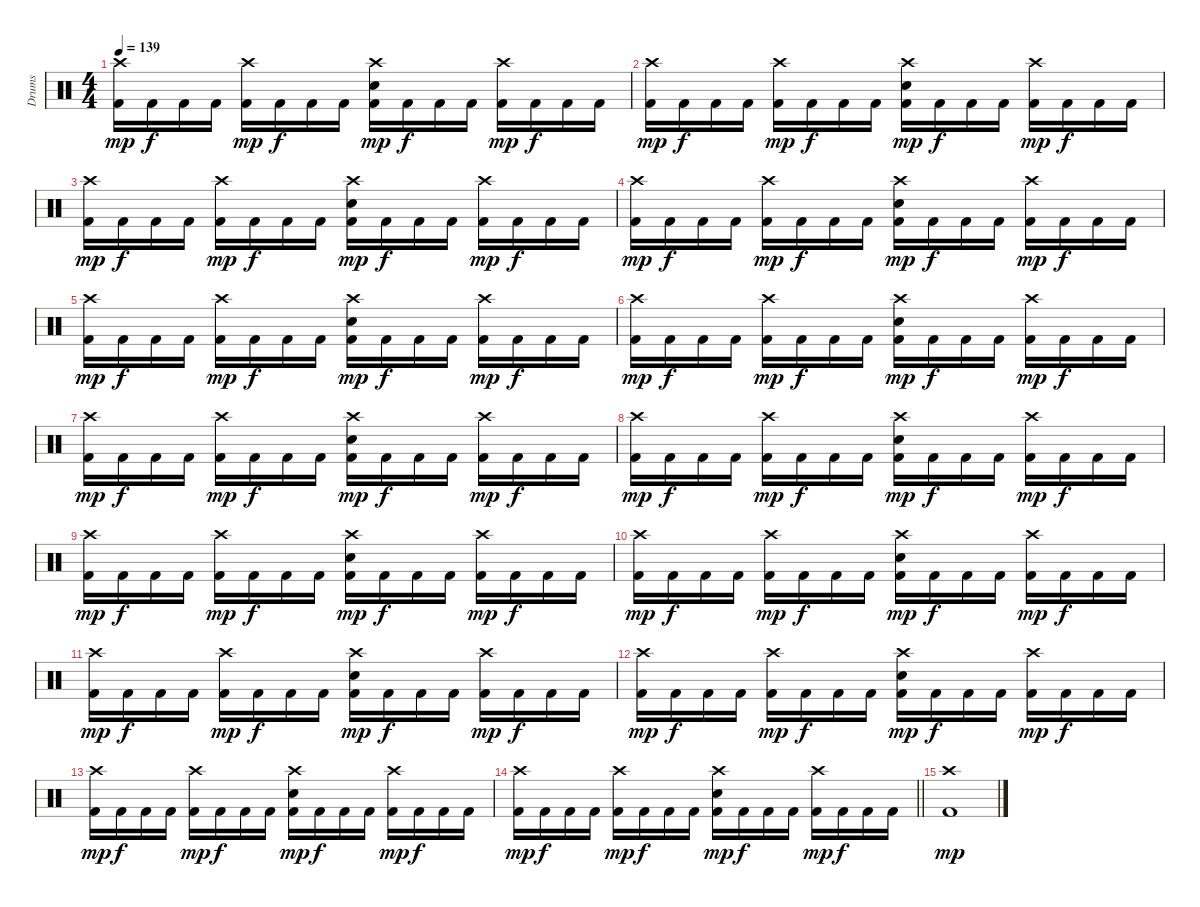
\track ("Drums" "Drums") {instrument percussion}
\staff {score}
\articulation defaults
\ts (4 4)
\tempo 139
\clef neutral
\ks c
("Crash high (hit)" "Kick (hit) 2").16{dy mp} "Kick (hit) 2".16{dy f} "Kick (hit) 2".16 "Kick (hit) 2".16 ("Crash high (hit)" "Kick (hit) 2").16{dy mp} "Kick (hit) 2".16{dy f} "Kick (hit) 2".16 "Kick (hit) 2".16 ("Crash high (hit)" "Snare (hit) 2" "Kick (hit) 2").16{dy mp} "Kick (hit) 2".16{dy f} "Kick (hit) 2".16 "Kick (hit) 2".16 ("Crash high (hit)" "Kick (hit) 2").16{dy mp} "Kick (hit) 2".16{dy f} "Kick (hit) 2".16 "Kick (hit) 2".16 |
("Crash high (hit)" "Kick (hit) 2").16{dy mp} "Kick (hit) 2".16{dy f} "Kick (hit) 2".16 "Kick (hit) 2".16 ("Crash high (hit)" "Kick (hit) 2").16{dy mp} "Kick (hit) 2".16{dy f} "Kick (hit) 2".16 "Kick (hit) 2".16 ("Crash high (hit)" "Snare (hit) 2" "Kick (hit) 2").16{dy mp} "Kick (hit) 2".16{dy f} "Kick (hit) 2".16 "Kick (hit) 2".16 ("Crash high (hit)" "Kick (hit) 2").16{dy mp} "Kick (hit) 2".16{dy f} "Kick (hit) 2".16 "Kick (hit) 2".16 |
("Crash high (hit)" "Kick (hit) 2").16{dy mp} "Kick (hit) 2".16{dy f} "Kick (hit) 2".16 "Kick (hit) 2".16 ("Crash high (hit)" "Kick (hit) 2").16{dy mp} "Kick (hit) 2".16{dy f} "Kick (hit) 2".16 "Kick (hit) 2".16 ("Crash high (hit)" "Snare (hit) 2" "Kick (hit) 2").16{dy mp} "Kick (hit) 2".16{dy f} "Kick (hit) 2".16 "Kick (hit) 2".16 ("Crash high (hit)" "Kick (hit) 2").16{dy mp} "Kick (hit) 2".16{dy f} "Kick (hit) 2".16 "Kick (hit) 2".16 |
("Crash high (hit)" "Kick (hit) 2").16{dy mp} "Kick (hit) 2".16{dy f} "Kick (hit) 2".16 "Kick (hit) 2".16 ("Crash high (hit)" "Kick (hit) 2").16{dy mp} "Kick (hit) 2".16{dy f} "Kick (hit) 2".16 "Kick (hit) 2".16 ("Crash high (hit)" "Snare (hit) 2" "Kick (hit) 2").16{dy mp} "Kick (hit) 2".16{dy f} "Kick (hit) 2".16 "Kick (hit) 2".16 ("Crash high (hit)" "Kick (hit) 2").16{dy mp} "Kick (hit) 2".16{dy f} "Kick (hit) 2".16 "Kick (hit) 2".16 |
("Crash high (hit)" "Kick (hit) 2").16{dy mp} "Kick (hit) 2".16{dy f} "Kick (hit) 2".16 "Kick (hit) 2".16 ("Crash high (hit)" "Kick (hit) 2").16{dy mp} "Kick (hit) 2".16{dy f} "Kick (hit) 2".16 "Kick (hit) 2".16 ("Crash high (hit)" "Snare (hit) 2" "Kick (hit) 2").16{dy mp} "Kick (hit) 2".16{dy f} "Kick (hit) 2".16 "Kick (hit) 2".16 ("Crash high (hit)" "Kick (hit) 2").16{dy mp} "Kick (hit) 2".16{dy f} "Kick (hit) 2".16 "Kick (hit) 2".16 |
("Crash high (hit)" "Kick (hit) 2").16{dy mp} "Kick (hit) 2".16{dy f} "Kick (hit) 2".16 "Kick (hit) 2".16 ("Crash high (hit)" "Kick (hit) 2").16{dy mp} "Kick (hit) 2".16{dy f} "Kick (hit) 2".16 "Kick (hit) 2".16 ("Crash high (hit)" "Snare (hit) 2" "Kick (hit) 2").16{dy mp} "Kick (hit) 2".16{dy f} "Kick (hit) 2".16 "Kick (hit) 2".16 ("Crash high (hit)" "Kick (hit) 2").16{dy mp} "Kick (hit) 2".16{dy f} "Kick (hit) 2".16 "Kick (hit) 2".16 |
("Crash high (hit)" "Kick (hit) 2").16{dy mp} "Kick (hit) 2".16{dy f} "Kick (hit) 2".16 "Kick (hit) 2".16 ("Crash high (hit)" "Kick (hit) 2").16{dy mp} "Kick (hit) 2".16{dy f} "Kick (hit) 2".16 "Kick (hit) 2".16 ("Crash high (hit)" "Snare (hit) 2" "Kick (hit) 2").16{dy mp} "Kick (hit) 2".16{dy f} "Kick (hit) 2".16 "Kick (hit) 2".16 ("Crash high (hit)" "Kick (hit) 2").16{dy mp} "Kick (hit) 2".16{dy f} "Kick (hit) 2".16 "Kick (hit) 2".16 |
("Crash high (hit)" "Kick (hit) 2").16{dy mp} "Kick (hit) 2".16{dy f} "Kick (hit) 2".16 "Kick (hit) 2".16 ("Crash high (hit)" "Kick (hit) 2").16{dy mp} "Kick (hit) 2".16{dy f} "Kick (hit) 2".16 "Kick (hit) 2".16 ("Crash high (hit)" "Snare (hit) 2" "Kick (hit) 2").16{dy mp} "Kick (hit) 2".16{dy f} "Kick (hit) 2".16 "Kick (hit) 2".16 ("Crash high (hit)" "Kick (hit) 2").16{dy mp} "Kick (hit) 2".16{dy f} "Kick (hit) 2".16 "Kick (hit) 2".16 |
("Crash high (hit)" "Kick (hit) 2").16{dy mp} "Kick (hit) 2".16{dy f} "Kick (hit) 2".16 "Kick (hit) 2".16 ("Crash high (hit)" "Kick (hit) 2").16{dy mp} "Kick (hit) 2".16{dy f} "Kick (hit) 2".16 "Kick (hit) 2".16 ("Crash high (hit)" "Snare (hit) 2" "Kick (hit) 2").16{dy mp} "Kick (hit) 2".16{dy f} "Kick (hit) 2".16 "Kick (hit) 2".16 ("Crash high (hit)" "Kick (hit) 2").16{dy mp} "Kick (hit) 2".16{dy f} "Kick (hit) 2".16 "Kick (hit) 2".16 |
("Crash high (hit)" "Kick (hit) 2").16{dy mp} "Kick (hit) 2".16{dy f} "Kick (hit) 2".16 "Kick (hit) 2".16 ("Crash high (hit)" "Kick (hit) 2").16{dy mp} "Kick (hit) 2".16{dy f} "Kick (hit) 2".16 "Kick (hit) 2".16 ("Crash high (hit)" "Snare (hit) 2" "Kick (hit) 2").16{dy mp} "Kick (hit) 2".16{dy f} "Kick (hit) 2".16 "Kick (hit) 2".16 ("Crash high (hit)" "Kick (hit) 2").16{dy mp} "Kick (hit) 2".16{dy f} "Kick (hit) 2".16 "Kick (hit) 2".16 |
("Crash high (hit)" "Kick (hit) 2").16{dy mp} "Kick (hit) 2".16{dy f} "Kick (hit) 2".16 "Kick (hit) 2".16 ("Crash high (hit)" "Kick (hit) 2").16{dy mp} "Kick (hit) 2".16{dy f} "Kick (hit) 2".16 "Kick (hit) 2".16 ("Crash high (hit)" "Snare (hit) 2" "Kick (hit) 2").16{dy mp} "Kick (hit) 2".16{dy f} "Kick (hit) 2".16 "Kick (hit) 2".16 ("Crash high (hit)" "Kick (hit) 2").16{dy mp} "Kick (hit) 2".16{dy f} "Kick (hit) 2".16 "Kick (hit) 2".16 |
("Crash high (hit)" "Kick (hit) 2").16{dy mp} "Kick (hit) 2".16{dy f} "Kick (hit) 2".16 "Kick (hit) 2".16 ("Crash high (hit)" "Kick (hit) 2").16{dy mp} "Kick (hit) 2".16{dy f} "Kick (hit) 2".16 "Kick (hit) 2".16 ("Crash high (hit)" "Snare (hit) 2" "Kick (hit) 2").16{dy mp} "Kick (hit) 2".16{dy f} "Kick (hit) 2".16 "Kick (hit) 2".16 ("Crash high (hit)" "Kick (hit) 2").16{dy mp} "Kick (hit) 2".16{dy f} "Kick (hit) 2".16 "Kick (hit) 2".16 |
("Crash high (hit)" "Kick (hit) 2").16{dy mp} "Kick (hit) 2".16{dy f} "Kick (hit) 2".16 "Kick (hit) 2".16 ("Crash high (hit)" "Kick (hit) 2").16{dy mp} "Kick (hit) 2".16{dy f} "Kick (hit) 2".16 "Kick (hit) 2".16 ("Crash high (hit)" "Snare (hit) 2" "Kick (hit) 2").16{dy mp} "Kick (hit) 2".16{dy f} "Kick (hit) 2".16 "Kick (hit) 2".16 ("Crash high (hit)" "Kick (hit) 2").16{dy mp} "Kick (hit) 2".16{dy f} "Kick (hit) 2".16 "Kick (hit) 2".16 |
\barLineRight lightlight
("Crash high (hit)" "Kick (hit) 2").16{dy mp} "Kick (hit) 2".16{dy f} "Kick (hit) 2".16 "Kick (hit) 2".16 ("Crash high (hit)" "Kick (hit) 2").16{dy mp} "Kick (hit) 2".16{dy f} "Kick (hit) 2".16 "Kick (hit) 2".16 ("Crash high (hit)" "Snare (hit) 2" "Kick (hit) 2").16{dy mp} "Kick (hit) 2".16{dy f} "Kick (hit) 2".16 "Kick (hit) 2".16 ("Crash high (hit)" "Kick (hit) 2").16{dy mp} "Kick (hit) 2".16{dy f} "Kick (hit) 2".16 "Kick (hit) 2".16 |
("Crash high (hit)" "Kick (hit) 2").1{dy mp}
